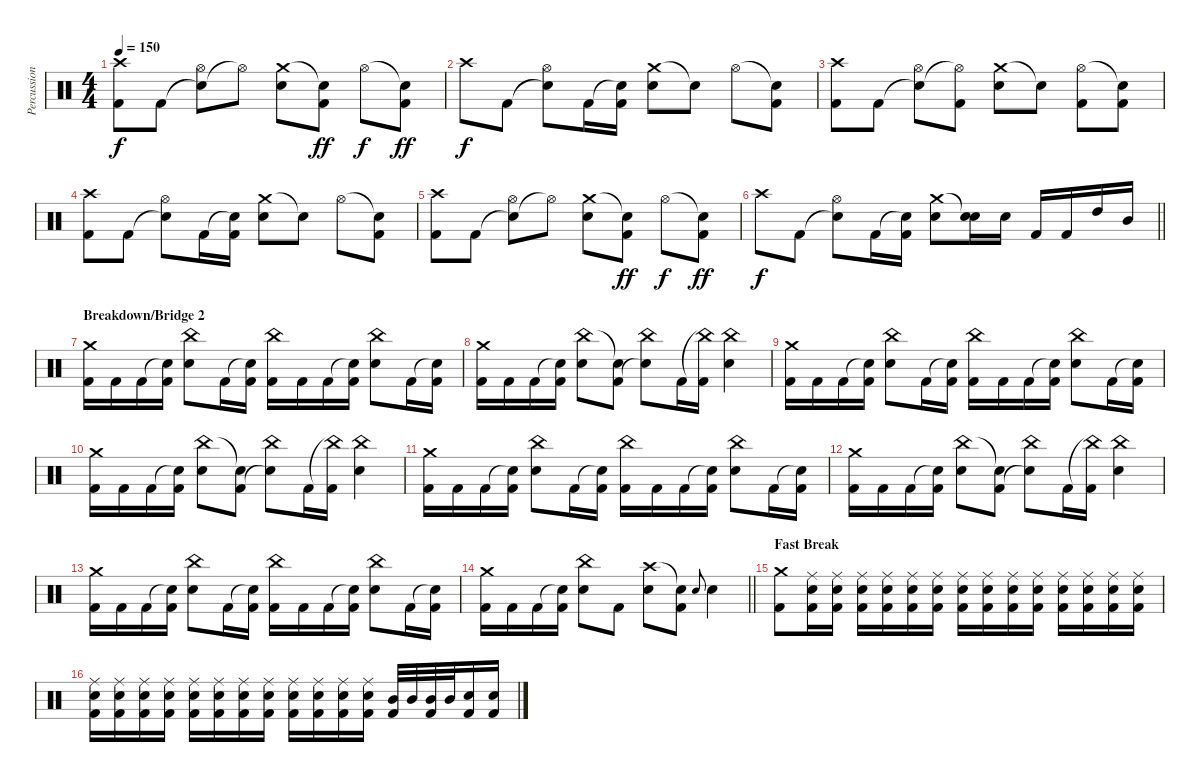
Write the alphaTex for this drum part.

\track ("Percussion" "Percussion") {instrument percussion}
\staff {score}
\articulation defaults
\ts (4 4)
\tempo 150
\clef neutral
\ks c
("Crash high (hit)" "Kick (hit) 2").8{dy f} "Kick (hit) 2".8 ("Snare (hit)"{t} "Hi-Hat (open)").8 "Hi-Hat (open)"{t}.8 ("Crash medium (hit)" "Electric Snare (hit)").8 ("Snare (hit)"{t} "Kick (hit) 2").8{dy ff} "Hi-Hat (open)".8{dy f} ("Snare (hit)"{t} "Kick (hit) 2").8{dy ff} |
"Crash high (hit)".8{dy f} "Kick (hit) 2".8 ("Snare (hit)"{t} "Hi-Hat (open)").8 "Kick (hit) 2".16 ("Snare (hit)"{t} "Kick (hit) 2").16 ("Crash medium (hit)" "Electric Snare (hit)").8 "Snare (hit)"{t}.8 "Hi-Hat (open)".8 ("Snare (hit)"{t} "Kick (hit) 2").8 |
("Crash high (hit)" "Kick (hit) 2").8 "Kick (hit) 2".8 ("Snare (hit)"{t} "Hi-Hat (open)").8 ("Hi-Hat (open)"{t} "Kick (hit) 2").8 ("Crash medium (hit)" "Electric Snare (hit)").8 "Snare (hit)"{t}.8 ("Hi-Hat (open)" "Kick (hit) 2").8 ("Snare (hit)"{t} "Kick (hit) 2").8 |
("Crash high (hit)" "Kick (hit) 2").8 "Kick (hit) 2".8 ("Snare (hit)"{t} "Hi-Hat (open)").8 "Kick (hit) 2".16 ("Snare (hit)"{t} "Kick (hit) 2").16 ("Crash medium (hit)" "Electric Snare (hit)").8 "Snare (hit)"{t}.8 "Hi-Hat (open)".8 ("Snare (hit)"{t} "Kick (hit) 2").8 |
("Crash high (hit)" "Kick (hit) 2").8 "Kick (hit) 2".8 ("Snare (hit)"{t} "Hi-Hat (open)").8 "Hi-Hat (open)"{t}.8 ("Crash medium (hit)" "Electric Snare (hit)").8 ("Snare (hit)"{t} "Kick (hit) 2").8{dy ff} "Hi-Hat (open)".8{dy f} ("Snare (hit)"{t} "Kick (hit) 2").8{dy ff} |
\barLineRight lightlight "Crash high (hit)".8{dy f} "Kick (hit) 2".8
("Snare (hit)"{t} "Hi-Hat (open)").8 "Kick (hit) 2".16 ("Snare (hit)"{t} "Kick (hit) 2").16 ("Crash medium (hit)" "Electric Snare (hit)").8 ("Snare (hit)"{t} "Electric Snare (hit)").16 "Electric Snare (hit)".16 "Kick (hit) 2".16 "Kick (hit) 2".16 "High Tom (hit)".16 "Mid Tom (hit)".16 |
\section ("" "Breakdown/Bridge 2")
("Crash medium (hit)" "Kick (hit) 2").16 "Kick (hit) 2".16 "Kick (hit) 2".16 ("Snare (hit)"{t} "Kick (hit) 2").16 ("China (hit)" "Electric Snare (hit)").8 "Kick (hit) 2".16 ("Snare (hit)"{t} "Kick (hit) 2").16 ("China (hit)" "Kick (hit) 2").16 "Kick (hit) 2".16 "Kick (hit) 2".16 ("Snare (hit)"{t} "Kick (hit) 2").16 ("China (hit)" "Electric Snare (hit)").8 "Kick (hit) 2".16 ("Snare (hit)"{t} "Kick (hit) 2").16 |
("Crash medium (hit)" "Kick (hit) 2").16 "Kick (hit) 2".16 "Kick (hit) 2".16 ("Snare (hit)"{t} "Kick (hit) 2").16 ("China (hit)" "Electric Snare (hit)").8 ("Snare (hit)"{t} "Kick (hit) 2").8 ("China (hit)" "Snare (hit)"{t}).8 "Kick (hit) 2".16 ("China (hit)"{t} "Kick (hit) 2").16 ("China (hit)" "Electric Snare (hit)").4 |
("Crash medium (hit)" "Kick (hit) 2").16 "Kick (hit) 2".16 "Kick (hit) 2".16 ("Snare (hit)"{t} "Kick (hit) 2").16 ("China (hit)" "Electric Snare (hit)").8 "Kick (hit) 2".16 ("Snare (hit)"{t} "Kick (hit) 2").16 ("China (hit)" "Kick (hit) 2").16 "Kick (hit) 2".16 "Kick (hit) 2".16 ("Snare (hit)"{t} "Kick (hit) 2").16 ("China (hit)" "Electric Snare (hit)").8 "Kick (hit) 2".16 ("Snare (hit)"{t} "Kick (hit) 2").16 |
("Crash medium (hit)" "Kick (hit) 2").16 "Kick (hit) 2".16 "Kick (hit) 2".16 ("Snare (hit)"{t} "Kick (hit) 2").16 ("China (hit)" "Electric Snare (hit)").8 ("Snare (hit)"{t} "Kick (hit) 2").8 ("China (hit)" "Snare (hit)"{t}).8 "Kick (hit) 2".16 ("China (hit)"{t} "Kick (hit) 2").16 ("China (hit)" "Electric Snare (hit)").4 |
("Crash medium (hit)" "Kick (hit) 2").16 "Kick (hit) 2".16 "Kick (hit) 2".16 ("Snare (hit)"{t} "Kick (hit) 2").16 ("China (hit)" "Electric Snare (hit)").8 "Kick (hit) 2".16 ("Snare (hit)"{t} "Kick (hit) 2").16 ("China (hit)" "Kick (hit) 2").16 "Kick (hit) 2".16 "Kick (hit) 2".16 ("Snare (hit)"{t} "Kick (hit) 2").16 ("China (hit)" "Electric Snare (hit)").8 "Kick (hit) 2".16 ("Snare (hit)"{t} "Kick (hit) 2").16 |
("Crash medium (hit)" "Kick (hit) 2").16 "Kick (hit) 2".16 "Kick (hit) 2".16 ("Snare (hit)"{t} "Kick (hit) 2").16 ("China (hit)" "Electric Snare (hit)").8 ("Snare (hit)"{t} "Kick (hit) 2").8 ("China (hit)" "Snare (hit)"{t}).8 "Kick (hit) 2".16 ("China (hit)"{t} "Kick (hit) 2").16 ("China (hit)" "Electric Snare (hit)").4 |
("Crash medium (hit)" "Kick (hit) 2").16 "Kick (hit) 2".16 "Kick (hit) 2".16 ("Snare (hit)"{t} "Kick (hit) 2").16 ("China (hit)" "Electric Snare (hit)").8 "Kick (hit) 2".16 ("Snare (hit)"{t} "Kick (hit) 2").16 ("China (hit)" "Kick (hit) 2").16 "Kick (hit) 2".16 "Kick (hit) 2".16 ("Snare (hit)"{t} "Kick (hit) 2").16 ("China (hit)" "Electric Snare (hit)").8 "Kick (hit) 2".16 ("Snare (hit)"{t} "Kick (hit) 2").16 |
\barLineRight lightlight
("Crash medium (hit)" "Kick (hit) 2").16 "Kick (hit) 2".16 "Kick (hit) 2".16 ("Snare (hit)"{t} "Kick (hit) 2").16 ("China (hit)" "Electric Snare (hit)").8 "Kick (hit) 2".8 ("Crash high (hit)" "Electric Snare (hit)").8 ("Snare (hit)"{t} "Kick (hit) 2").8 "Electric Snare (hit)".8{gr onbeat} "Electric Snare (hit)".4 |
\section ("" "Fast Break")
("Crash medium (hit)" "Kick (hit) 2").8 ("Ride (middle)" "Electric Snare (hit)" "Kick (hit) 2").16 ("Ride (middle)" "Electric Snare (hit)" "Kick (hit) 2").16 ("Ride (middle)" "Electric Snare (hit)" "Kick (hit) 2").16 ("Ride (middle)" "Electric Snare (hit)" "Kick (hit) 2").16 ("Ride (middle)" "Electric Snare (hit)" "Kick (hit) 2").16 ("Ride (middle)" "Electric Snare (hit)" "Kick (hit) 2").16 ("Ride (middle)" "Electric Snare (hit)" "Kick (hit) 2").16 ("Ride (middle)" "Electric Snare (hit)" "Kick (hit) 2").16 ("Ride (middle)" "Electric Snare (hit)" "Kick (hit) 2").16 ("Ride (middle)" "Electric Snare (hit)" "Kick (hit) 2").16 ("Ride (middle)" "Electric Snare (hit)" "Kick (hit) 2").16 ("Ride (middle)" "Electric Snare (hit)" "Kick (hit) 2").16 ("Ride (middle)" "Electric Snare (hit)" "Kick (hit) 2").16 ("Ride (middle)" "Electric Snare (hit)" "Kick (hit) 2").16 |
("Ride (middle)" "Electric Snare (hit)" "Kick (hit) 2").16 ("Ride (middle)" "Electric Snare (hit)" "Kick (hit) 2").16 ("Ride (middle)" "Electric Snare (hit)" "Kick (hit) 2").16 ("Ride (middle)" "Electric Snare (hit)" "Kick (hit) 2").16 ("Ride (middle)" "Electric Snare (hit)" "Kick (hit) 2").16 ("Ride (middle)" "Electric Snare (hit)" "Kick (hit) 2").16 ("Ride (middle)" "Electric Snare (hit)" "Kick (hit) 2").16 ("Ride (middle)" "Electric Snare (hit)" "Kick (hit) 2").16 ("Ride (middle)" "Electric Snare (hit)" "Kick (hit) 2").16 ("Ride (middle)" "Electric Snare (hit)" "Kick (hit) 2").16 ("Ride (middle)" "Electric Snare (hit)" "Kick (hit) 2").16 ("Ride (middle)" "Electric Snare (hit)" "Kick (hit) 2").16 ("Mid Tom (hit)" "Kick (hit) 2").32 "Mid Tom (hit)".32 ("Mid Tom (hit)" "Kick (hit) 2").32 "Mid Tom (hit)".32 ("Electric Snare (hit)" "Kick (hit) 2").16 ("Electric Snare (hit)" "Kick (hit) 2").16
